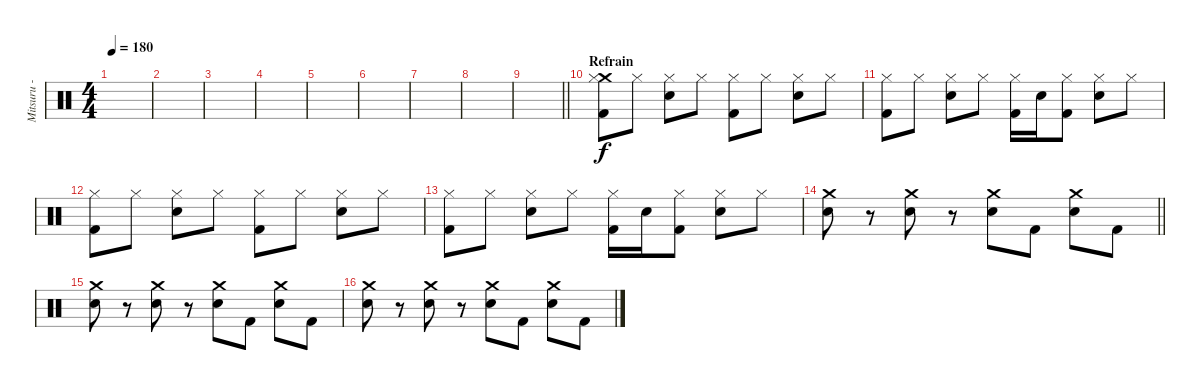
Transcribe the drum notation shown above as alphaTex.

\track ("Mitsuru - Batterie" "Mitsuru - ") {instrument percussion}
\staff {score}
\articulation defaults
\ts (4 4)
\tempo 180
\clef neutral
\ks c
|
|
|
|
|
|
|
|
\barLineRight lightlight
|
\section ("" "Refrain")
("Crash medium (hit)" "Hi-Hat (closed)" "Kick (hit) 2").8 "Hi-Hat (closed)".8 ("Hi-Hat (closed)" "Electric Snare (hit)").8 "Hi-Hat (closed)".8 ("Hi-Hat (closed)" "Kick (hit) 2").8 "Hi-Hat (closed)".8 ("Hi-Hat (closed)" "Electric Snare (hit)").8 "Hi-Hat (closed)".8 |
("Hi-Hat (closed)" "Kick (hit) 2").8 "Hi-Hat (closed)".8 ("Hi-Hat (closed)" "Electric Snare (hit)").8 "Hi-Hat (closed)".8 ("Hi-Hat (closed)" "Kick (hit) 2").16 "Electric Snare (hit)".16 ("Hi-Hat (closed)" "Kick (hit) 2").8 ("Hi-Hat (closed)" "Electric Snare (hit)").8 "Hi-Hat (closed)".8 |
("Hi-Hat (closed)" "Kick (hit) 2").8 "Hi-Hat (closed)".8 ("Hi-Hat (closed)" "Electric Snare (hit)").8 "Hi-Hat (closed)".8 ("Hi-Hat (closed)" "Kick (hit) 2").8 "Hi-Hat (closed)".8 ("Hi-Hat (closed)" "Electric Snare (hit)").8 "Hi-Hat (closed)".8 |
("Hi-Hat (closed)" "Kick (hit) 2").8 "Hi-Hat (closed)".8 ("Hi-Hat (closed)" "Electric Snare (hit)").8 "Hi-Hat (closed)".8 ("Hi-Hat (closed)" "Kick (hit) 2").16 "Electric Snare (hit)".16 ("Hi-Hat (closed)" "Kick (hit) 2").8 ("Hi-Hat (closed)" "Electric Snare (hit)").8 "Hi-Hat (closed)".8 |
\barLineRight lightlight
("Crash medium (hit)" "Electric Snare (hit)").8 r.8 ("Crash medium (hit)" "Electric Snare (hit)").8 r.8 ("Crash medium (hit)" "Electric Snare (hit)").8 "Kick (hit) 2".8 ("Crash medium (hit)" "Electric Snare (hit)").8 "Kick (hit) 2".8 |
("Crash medium (hit)" "Electric Snare (hit)").8 r.8 ("Crash medium (hit)" "Electric Snare (hit)").8 r.8 ("Crash medium (hit)" "Electric Snare (hit)").8 "Kick (hit) 2".8 ("Crash medium (hit)" "Electric Snare (hit)").8 "Kick (hit) 2".8 |
("Crash medium (hit)" "Electric Snare (hit)").8 r.8 ("Crash medium (hit)" "Electric Snare (hit)").8 r.8 ("Crash medium (hit)" "Electric Snare (hit)").8 "Kick (hit) 2".8 ("Crash medium (hit)" "Electric Snare (hit)").8 "Kick (hit) 2".8
